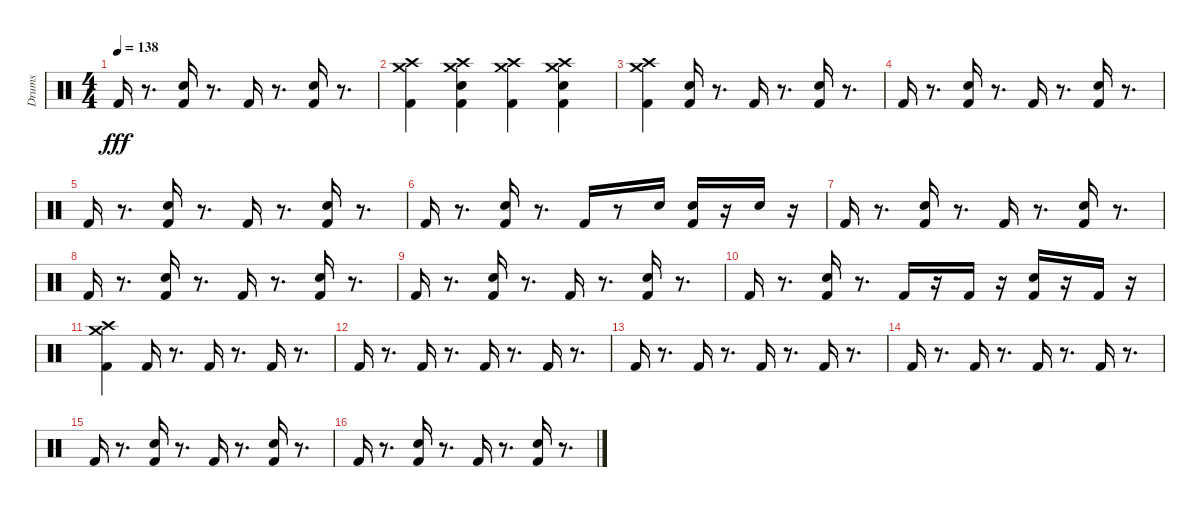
\track ("Drums" "Drums") {instrument percussion}
\staff {score}
\articulation defaults
\ts (4 4)
\tempo 138
\clef neutral
\ks c "Kick (hit) 2".16{dy fff}
r.8{d} ("Kick (hit) 2" "Hand Clap (hit)").16 r.8{d} "Kick (hit) 2".16 r.8{d} ("Kick (hit) 2" "Hand Clap (hit)").16 r.8{d} |
("Kick (hit) 2" "Crash medium (hit)" "Crash high (hit)").4 ("Kick (hit) 2" "Crash medium (hit)" "Crash high (hit)" "Hand Clap (hit)").4 ("Kick (hit) 2" "Crash high (hit)" "Crash medium (hit)").4 ("Kick (hit) 2" "Crash high (hit)" "Crash medium (hit)" "Hand Clap (hit)").4 |
("Kick (hit) 2" "Crash medium (hit)" "Crash high (hit)").4 ("Kick (hit) 2" "Hand Clap (hit)").16 r.8{d} "Kick (hit) 2".16 r.8{d} ("Kick (hit) 2" "Hand Clap (hit)").16 r.8{d} |
"Kick (hit) 2".16 r.8{d} ("Kick (hit) 2" "Hand Clap (hit)").16 r.8{d} "Kick (hit) 2".16 r.8{d} ("Kick (hit) 2" "Hand Clap (hit)").16 r.8{d} |
"Kick (hit) 2".16 r.8{d} ("Kick (hit) 2" "Hand Clap (hit)").16 r.8{d} "Kick (hit) 2".16 r.8{d} ("Kick (hit) 2" "Hand Clap (hit)").16 r.8{d} |
"Kick (hit) 2".16 r.8{d} ("Kick (hit) 2" "Hand Clap (hit)").16 r.8{d} "Kick (hit) 2".16 r.8 "Hand Clap (hit)".16 ("Kick (hit) 2" "Hand Clap (hit)").16 r.16 "Hand Clap (hit)".16 r.16 |
"Kick (hit) 2".16 r.8{d} ("Kick (hit) 2" "Hand Clap (hit)").16 r.8{d} "Kick (hit) 2".16 r.8{d} ("Kick (hit) 2" "Hand Clap (hit)").16 r.8{d} |
"Kick (hit) 2".16 r.8{d} ("Kick (hit) 2" "Hand Clap (hit)").16 r.8{d} "Kick (hit) 2".16 r.8{d} ("Kick (hit) 2" "Hand Clap (hit)").16 r.8{d} |
"Kick (hit) 2".16 r.8{d} ("Kick (hit) 2" "Hand Clap (hit)").16 r.8{d} "Kick (hit) 2".16 r.8{d} ("Kick (hit) 2" "Hand Clap (hit)").16 r.8{d} |
"Kick (hit) 2".16 r.8{d} ("Kick (hit) 2" "Hand Clap (hit)").16 r.8{d} "Kick (hit) 2".16 r.16 "Kick (hit) 2".16 r.16 ("Kick (hit) 2" "Hand Clap (hit)").16 r.16 "Kick (hit) 2".16 r.16 |
("Kick (hit) 2" "Crash medium (hit)" "Crash high (hit)").4 "Kick (hit) 2".16 r.8{d} "Kick (hit) 2".16 r.8{d} "Kick (hit) 2".16 r.8{d} |
"Kick (hit) 2".16 r.8{d} "Kick (hit) 2".16 r.8{d} "Kick (hit) 2".16 r.8{d} "Kick (hit) 2".16 r.8{d} |
"Kick (hit) 2".16 r.8{d} "Kick (hit) 2".16 r.8{d} "Kick (hit) 2".16 r.8{d} "Kick (hit) 2".16 r.8{d} |
"Kick (hit) 2".16 r.8{d} "Kick (hit) 2".16 r.8{d} "Kick (hit) 2".16 r.8{d} "Kick (hit) 2".16 r.8{d} |
"Kick (hit) 2".16 r.8{d} ("Kick (hit) 2" "Hand Clap (hit)").16 r.8{d} "Kick (hit) 2".16 r.8{d} ("Kick (hit) 2" "Hand Clap (hit)").16 r.8{d} |
"Kick (hit) 2".16 r.8{d} ("Kick (hit) 2" "Hand Clap (hit)").16 r.8{d} "Kick (hit) 2".16 r.8{d} ("Kick (hit) 2" "Hand Clap (hit)").16 r.8{d}
